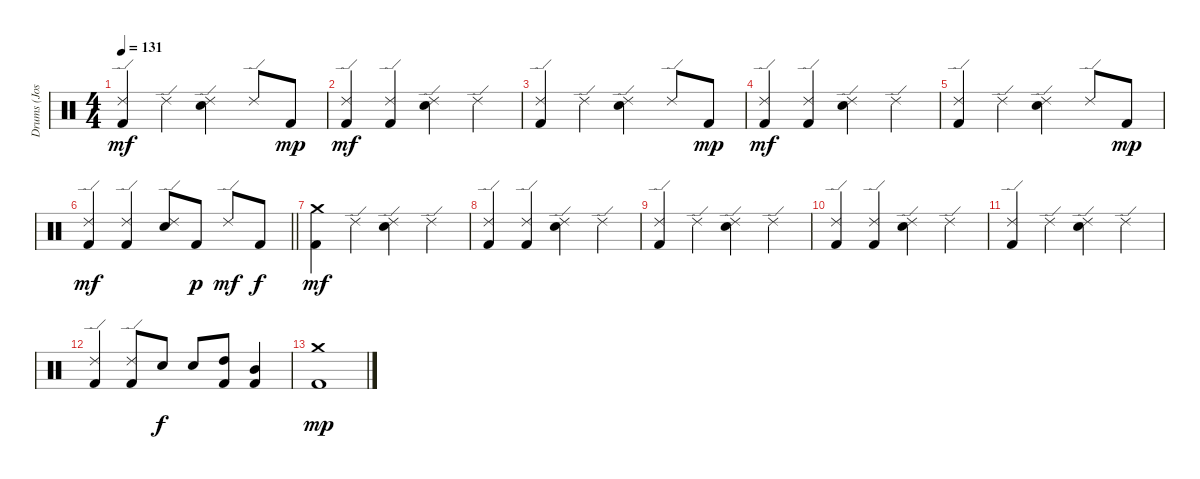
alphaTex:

\track ("Drums (Josh Freese)" "Drums (Jos") {instrument percussion}
\staff {score}
\articulation defaults
\ts (4 4)
\tempo 131
\clef neutral
\ks c
("Ride (edge) 2" "Kick (hit) 2").4{dy mf} "Ride (edge) 2".4 ("Ride (edge) 2" "Electric Snare (hit)").4 "Ride (edge) 2".8 "Kick (hit) 2".8{dy mp} |
("Ride (edge) 2" "Kick (hit) 2").4{dy mf} ("Ride (edge) 2" "Kick (hit) 2").4 ("Ride (edge) 2" "Electric Snare (hit)").4 "Ride (edge) 2".4 |
("Ride (edge) 2" "Kick (hit) 2").4 "Ride (edge) 2".4 ("Ride (edge) 2" "Electric Snare (hit)").4 "Ride (edge) 2".8 "Kick (hit) 2".8{dy mp} |
("Ride (edge) 2" "Kick (hit) 2").4{dy mf} ("Ride (edge) 2" "Kick (hit) 2").4 ("Ride (edge) 2" "Electric Snare (hit)").4 "Ride (edge) 2".4 |
("Ride (edge) 2" "Kick (hit) 2").4 "Ride (edge) 2".4 ("Ride (edge) 2" "Electric Snare (hit)").4 "Ride (edge) 2".8 "Kick (hit) 2".8{dy mp} |
\barLineRight lightlight
("Ride (edge) 2" "Kick (hit) 2").4{dy mf} ("Ride (edge) 2" "Kick (hit) 2").4 ("Ride (edge) 2" "Electric Snare (hit)").8 "Kick (hit) 2".8{dy p} "Ride (edge) 2".8{dy mf} "Kick (hit) 2".8{dy f} |
("Crash medium (hit)" "Kick (hit) 2").4{dy mf} "Ride (edge) 2".4 ("Ride (edge) 2" "Electric Snare (hit)").4 "Ride (edge) 2".4 |
("Ride (edge) 2" "Kick (hit) 2").4 ("Ride (edge) 2" "Kick (hit) 2").4 ("Ride (edge) 2" "Electric Snare (hit)").4 "Ride (edge) 2".4 |
("Ride (edge) 2" "Kick (hit) 2").4 "Ride (edge) 2".4 ("Ride (edge) 2" "Electric Snare (hit)").4 "Ride (edge) 2".4 |
("Ride (edge) 2" "Kick (hit) 2").4 ("Ride (edge) 2" "Kick (hit) 2").4 ("Ride (edge) 2" "Electric Snare (hit)").4 "Ride (edge) 2".4 |
("Ride (edge) 2" "Kick (hit) 2").4 "Ride (edge) 2".4 ("Ride (edge) 2" "Electric Snare (hit)").4 "Ride (edge) 2".4 |
("Ride (edge) 2" "Kick (hit) 2").4 ("Ride (edge) 2" "Kick (hit) 2").8 "Electric Snare (hit)".8{dy f} "Electric Snare (hit)".8 ("High Tom (hit)" "Kick (hit) 2").8 ("Mid Tom (hit)" "Kick (hit) 2").4 |
("Crash medium (hit)" "Kick (hit) 2").1{dy mp}
